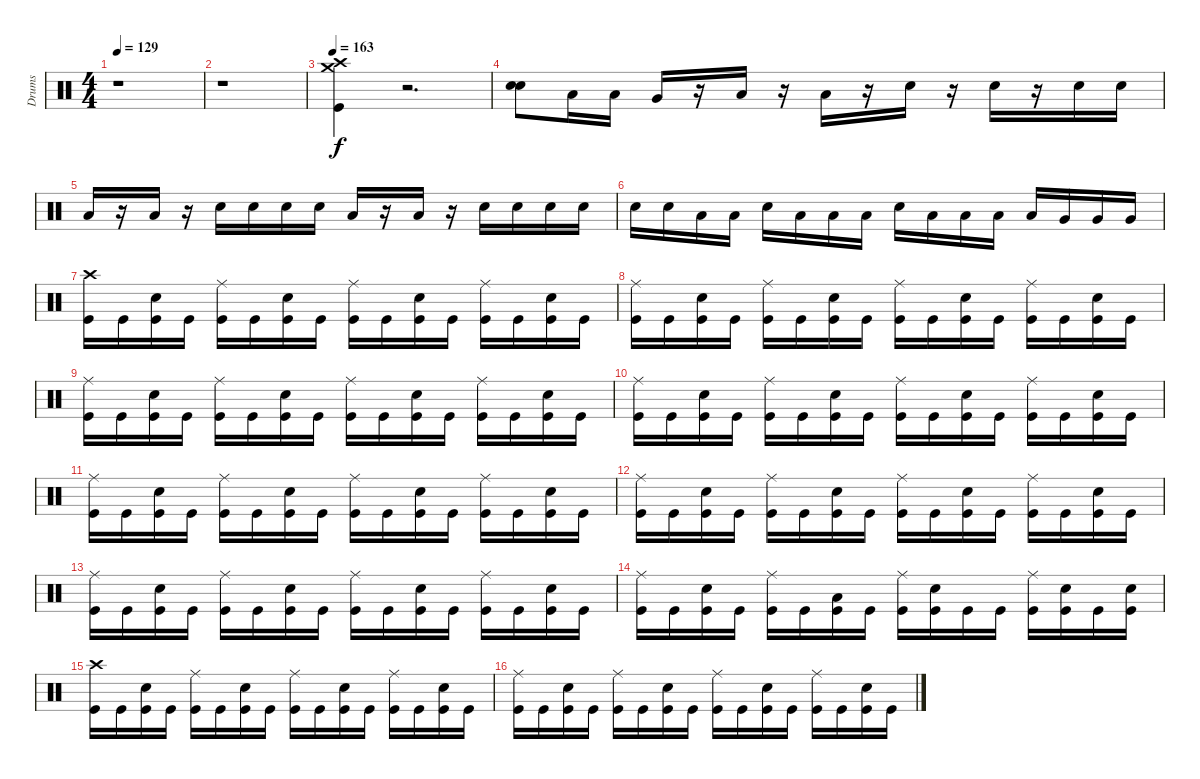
\track ("Drums" "Drums") {instrument percussion}
\staff {score}
\articulation defaults
\ts (4 4)
\tempo 129
\clef neutral
\ks c
r.1{dy f} |
r.1 |
\tempo 163
("Crash high (hit)" "Crash medium (hit)" "Kick (hit)").4 r.2{d} |
("Electric Snare (hit)" "Electric Snare (hit)").8 "Low Tom (hit)".16 "Low Tom (hit)".16 "Very Low Tom (hit)".16 r.16 "Low Floor Tom (hit)".16 r.16 "Low Floor Tom (hit)".16 r.16 "Electric Snare (hit)".16 r.16 "Electric Snare (hit)".16 r.16 "Electric Snare (hit)".16 "Electric Snare (hit)".16 |
"Low Tom (hit)".16 r.16 "Low Tom (hit)".16 r.16 "Electric Snare (hit)".16 "Electric Snare (hit)".16 "Electric Snare (hit)".16 "Electric Snare (hit)".16 "Low Tom (hit)".16 r.16 "Low Tom (hit)".16 r.16 "Electric Snare (hit)".16 "Electric Snare (hit)".16 "Electric Snare (hit)".16 "Electric Snare (hit)".16 |
"Electric Snare (hit)".16 "Electric Snare (hit)".16 "Low Tom (hit)".16 "Low Tom (hit)".16 "Electric Snare (hit)".16 "Low Tom (hit)".16 "Low Tom (hit)".16 "Low Tom (hit)".16 "Electric Snare (hit)".16 "Low Tom (hit)".16 "Low Tom (hit)".16 "Low Tom (hit)".16 "Low Tom (hit)".16 "Very Low Tom (hit)".16 "Very Low Tom (hit)".16 "Very Low Tom (hit)".16 |
("Kick (hit)" "Crash high (hit)").16{volume 14 balance 8} "Kick (hit)".16 ("Electric Snare (hit)" "Kick (hit)").16 "Kick (hit)".16 ("Ride (middle)" "Kick (hit)").16 "Kick (hit)".16 ("Electric Snare (hit)" "Kick (hit)").16 "Kick (hit)".16 ("Ride (middle)" "Kick (hit)").16 "Kick (hit)".16 ("Electric Snare (hit)" "Kick (hit)").16 "Kick (hit)".16 ("Ride (middle)" "Kick (hit)").16 "Kick (hit)".16 ("Electric Snare (hit)" "Kick (hit)").16 "Kick (hit)".16 |
("Ride (middle)" "Kick (hit)").16 "Kick (hit)".16 ("Electric Snare (hit)" "Kick (hit)").16 "Kick (hit)".16 ("Ride (middle)" "Kick (hit)").16 "Kick (hit)".16 ("Electric Snare (hit)" "Kick (hit)").16 "Kick (hit)".16 ("Ride (middle)" "Kick (hit)").16 "Kick (hit)".16 ("Electric Snare (hit)" "Kick (hit)").16 "Kick (hit)".16 ("Ride (middle)" "Kick (hit)").16 "Kick (hit)".16 ("Electric Snare (hit)" "Kick (hit)").16 "Kick (hit)".16 |
("Ride (middle)" "Kick (hit)").16 "Kick (hit)".16 ("Electric Snare (hit)" "Kick (hit)").16 "Kick (hit)".16 ("Ride (middle)" "Kick (hit)").16 "Kick (hit)".16 ("Electric Snare (hit)" "Kick (hit)").16 "Kick (hit)".16 ("Ride (middle)" "Kick (hit)").16 "Kick (hit)".16 ("Electric Snare (hit)" "Kick (hit)").16 "Kick (hit)".16 ("Ride (middle)" "Kick (hit)").16 "Kick (hit)".16 ("Electric Snare (hit)" "Kick (hit)").16 "Kick (hit)".16 |
("Ride (middle)" "Kick (hit)").16 "Kick (hit)".16 ("Electric Snare (hit)" "Kick (hit)").16 "Kick (hit)".16 ("Ride (middle)" "Kick (hit)").16 "Kick (hit)".16 ("Electric Snare (hit)" "Kick (hit)").16 "Kick (hit)".16 ("Ride (middle)" "Kick (hit)").16 "Kick (hit)".16 ("Electric Snare (hit)" "Kick (hit)").16 "Kick (hit)".16 ("Ride (middle)" "Kick (hit)").16 "Kick (hit)".16 ("Electric Snare (hit)" "Kick (hit)").16 "Kick (hit)".16 |
("Ride (middle)" "Kick (hit)").16 "Kick (hit)".16 ("Electric Snare (hit)" "Kick (hit)").16 "Kick (hit)".16 ("Ride (middle)" "Kick (hit)").16 "Kick (hit)".16 ("Electric Snare (hit)" "Kick (hit)").16 "Kick (hit)".16 ("Ride (middle)" "Kick (hit)").16 "Kick (hit)".16 ("Electric Snare (hit)" "Kick (hit)").16 "Kick (hit)".16 ("Ride (middle)" "Kick (hit)").16 "Kick (hit)".16 ("Electric Snare (hit)" "Kick (hit)").16 "Kick (hit)".16 |
("Ride (middle)" "Kick (hit)").16 "Kick (hit)".16 ("Electric Snare (hit)" "Kick (hit)").16 "Kick (hit)".16 ("Ride (middle)" "Kick (hit)").16 "Kick (hit)".16 ("Electric Snare (hit)" "Kick (hit)").16 "Kick (hit)".16 ("Ride (middle)" "Kick (hit)").16 "Kick (hit)".16 ("Electric Snare (hit)" "Kick (hit)").16 "Kick (hit)".16 ("Ride (middle)" "Kick (hit)").16 "Kick (hit)".16 ("Electric Snare (hit)" "Kick (hit)").16 "Kick (hit)".16 |
("Ride (middle)" "Kick (hit)").16 "Kick (hit)".16 ("Electric Snare (hit)" "Kick (hit)").16 "Kick (hit)".16 ("Ride (middle)" "Kick (hit)").16 "Kick (hit)".16 ("Electric Snare (hit)" "Kick (hit)").16 "Kick (hit)".16 ("Ride (middle)" "Kick (hit)").16 "Kick (hit)".16 ("Electric Snare (hit)" "Kick (hit)").16 "Kick (hit)".16 ("Ride (middle)" "Kick (hit)").16 "Kick (hit)".16 ("Electric Snare (hit)" "Kick (hit)").16 "Kick (hit)".16 |
("Ride (middle)" "Kick (hit)").16 "Kick (hit)".16 ("Electric Snare (hit)" "Kick (hit)").16 "Kick (hit)".16 ("Ride (middle)" "Kick (hit)").16 "Kick (hit)".16 ("Low Tom (hit)" "Kick (hit)").16 "Kick (hit)".16 ("Ride (middle)" "Kick (hit)").16 ("Electric Snare (hit)" "Kick (hit)").16 "Kick (hit)".16 "Kick (hit)".16 ("Ride (middle)" "Kick (hit)").16 ("Electric Snare (hit)" "Kick (hit)").16 "Kick (hit)".16 ("Electric Snare (hit)" "Kick (hit)").16 |
("Kick (hit)" "Crash high (hit)").16 "Kick (hit)".16 ("Electric Snare (hit)" "Kick (hit)").16 "Kick (hit)".16 ("Ride (middle)" "Kick (hit)").16 "Kick (hit)".16 ("Electric Snare (hit)" "Kick (hit)").16 "Kick (hit)".16 ("Ride (middle)" "Kick (hit)").16 "Kick (hit)".16 ("Electric Snare (hit)" "Kick (hit)").16 "Kick (hit)".16 ("Ride (middle)" "Kick (hit)").16 "Kick (hit)".16 ("Electric Snare (hit)" "Kick (hit)").16 "Kick (hit)".16 |
("Ride (middle)" "Kick (hit)").16 "Kick (hit)".16 ("Electric Snare (hit)" "Kick (hit)").16 "Kick (hit)".16 ("Ride (middle)" "Kick (hit)").16 "Kick (hit)".16 ("Electric Snare (hit)" "Kick (hit)").16 "Kick (hit)".16 ("Ride (middle)" "Kick (hit)").16 "Kick (hit)".16 ("Electric Snare (hit)" "Kick (hit)").16 "Kick (hit)".16 ("Ride (middle)" "Kick (hit)").16 "Kick (hit)".16 ("Electric Snare (hit)" "Kick (hit)").16 "Kick (hit)".16
